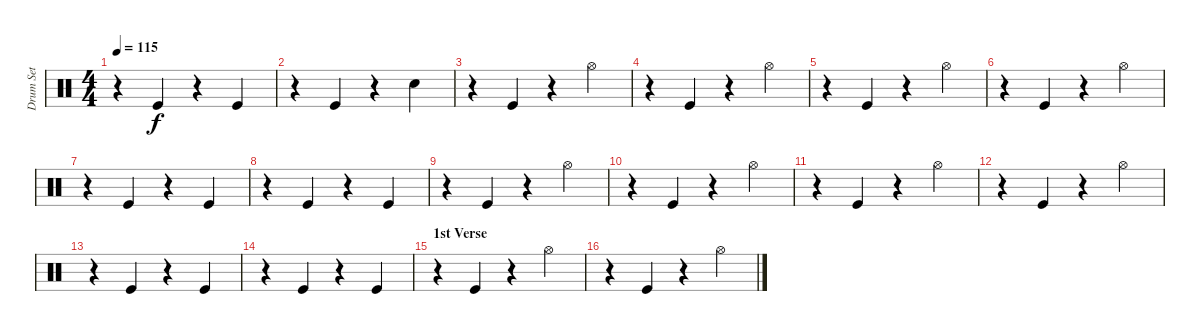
\track ("Drum Set" "Drum Set") {instrument percussion}
\staff {score}
\articulation defaults
\ts (4 4)
\tempo 115
\clef neutral
\ks c
r.4{dy f} "Kick (hit)".4 r.4 "Kick (hit)".4 |
r.4 "Kick (hit)".4 r.4 "Electric Snare (hit)".4 |
r.4 "Kick (hit)".4 r.4 "Hi-Hat (open)".4 |
r.4 "Kick (hit)".4 r.4 "Hi-Hat (open)".4 |
r.4 "Kick (hit)".4 r.4 "Hi-Hat (open)".4 |
r.4 "Kick (hit)".4 r.4 "Hi-Hat (open)".4 |
r.4 "Kick (hit)".4 r.4 "Kick (hit)".4 |
r.4 "Kick (hit)".4 r.4 "Kick (hit)".4 |
r.4 "Kick (hit)".4 r.4 "Hi-Hat (open)".4 |
r.4 "Kick (hit)".4 r.4 "Hi-Hat (open)".4 |
r.4 "Kick (hit)".4 r.4 "Hi-Hat (open)".4 |
r.4 "Kick (hit)".4 r.4 "Hi-Hat (open)".4 |
r.4 "Kick (hit)".4 r.4 "Kick (hit)".4 |
r.4 "Kick (hit)".4 r.4 "Kick (hit)".4 |
\section ("" "1st Verse")
r.4 "Kick (hit)".4 r.4 "Hi-Hat (open)".4 |
r.4 "Kick (hit)".4 r.4 "Hi-Hat (open)".4
